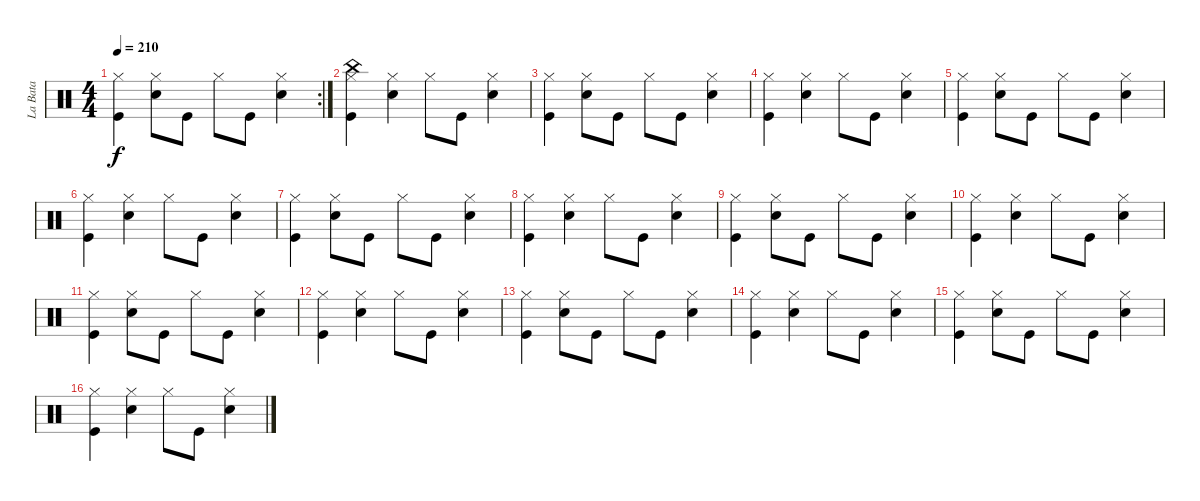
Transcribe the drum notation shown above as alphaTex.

\track ("La Bata" "La Bata") {instrument percussion}
\staff {score}
\articulation defaults
\rc 2
\ts (4 4)
\tempo 210
\clef neutral
\ks c
("Hi-Hat (closed)" "Kick (hit)").4{dy f} ("Snare (hit) 2" "Hi-Hat (closed)").8 "Kick (hit)".8 "Hi-Hat (closed)".8 "Kick (hit)".8 ("Hi-Hat (closed)" "Snare (hit) 2").4 |
("Kick (hit)" "Hi-Hat (closed)" "China (hit)").4 ("Snare (hit) 2" "Hi-Hat (closed)").4 "Hi-Hat (closed)".8 "Kick (hit)".8 ("Snare (hit) 2" "Hi-Hat (closed)").4 |
("Hi-Hat (closed)" "Kick (hit)").4 ("Snare (hit) 2" "Hi-Hat (closed)").8 "Kick (hit)".8 "Hi-Hat (closed)".8 "Kick (hit)".8 ("Hi-Hat (closed)" "Snare (hit) 2").4 |
("Kick (hit)" "Hi-Hat (closed)").4 ("Snare (hit) 2" "Hi-Hat (closed)").4 "Hi-Hat (closed)".8 "Kick (hit)".8 ("Snare (hit) 2" "Hi-Hat (closed)").4 |
("Hi-Hat (closed)" "Kick (hit)").4 ("Snare (hit) 2" "Hi-Hat (closed)").8 "Kick (hit)".8 "Hi-Hat (closed)".8 "Kick (hit)".8 ("Hi-Hat (closed)" "Snare (hit) 2").4 |
("Kick (hit)" "Hi-Hat (closed)").4 ("Snare (hit) 2" "Hi-Hat (closed)").4 "Hi-Hat (closed)".8 "Kick (hit)".8 ("Snare (hit) 2" "Hi-Hat (closed)").4 |
("Hi-Hat (closed)" "Kick (hit)").4 ("Snare (hit) 2" "Hi-Hat (closed)").8 "Kick (hit)".8 "Hi-Hat (closed)".8 "Kick (hit)".8 ("Hi-Hat (closed)" "Snare (hit) 2").4 |
("Kick (hit)" "Hi-Hat (closed)").4 ("Snare (hit) 2" "Hi-Hat (closed)").4 "Hi-Hat (closed)".8 "Kick (hit)".8 ("Snare (hit) 2" "Hi-Hat (closed)").4 |
("Hi-Hat (closed)" "Kick (hit)").4 ("Snare (hit) 2" "Hi-Hat (closed)").8 "Kick (hit)".8 "Hi-Hat (closed)".8 "Kick (hit)".8 ("Hi-Hat (closed)" "Snare (hit) 2").4 |
("Kick (hit)" "Hi-Hat (closed)").4 ("Snare (hit) 2" "Hi-Hat (closed)").4 "Hi-Hat (closed)".8 "Kick (hit)".8 ("Snare (hit) 2" "Hi-Hat (closed)").4 |
("Hi-Hat (closed)" "Kick (hit)").4 ("Snare (hit) 2" "Hi-Hat (closed)").8 "Kick (hit)".8 "Hi-Hat (closed)".8 "Kick (hit)".8 ("Hi-Hat (closed)" "Snare (hit) 2").4 |
("Kick (hit)" "Hi-Hat (closed)").4 ("Snare (hit) 2" "Hi-Hat (closed)").4 "Hi-Hat (closed)".8 "Kick (hit)".8 ("Snare (hit) 2" "Hi-Hat (closed)").4 |
("Hi-Hat (closed)" "Kick (hit)").4 ("Snare (hit) 2" "Hi-Hat (closed)").8 "Kick (hit)".8 "Hi-Hat (closed)".8 "Kick (hit)".8 ("Hi-Hat (closed)" "Snare (hit) 2").4 |
("Kick (hit)" "Hi-Hat (closed)").4 ("Snare (hit) 2" "Hi-Hat (closed)").4 "Hi-Hat (closed)".8 "Kick (hit)".8 ("Snare (hit) 2" "Hi-Hat (closed)").4 |
("Hi-Hat (closed)" "Kick (hit)").4 ("Snare (hit) 2" "Hi-Hat (closed)").8 "Kick (hit)".8 "Hi-Hat (closed)".8 "Kick (hit)".8 ("Hi-Hat (closed)" "Snare (hit) 2").4 |
("Kick (hit)" "Hi-Hat (closed)").4 ("Snare (hit) 2" "Hi-Hat (closed)").4 "Hi-Hat (closed)".8 "Kick (hit)".8 ("Snare (hit) 2" "Hi-Hat (closed)").4
